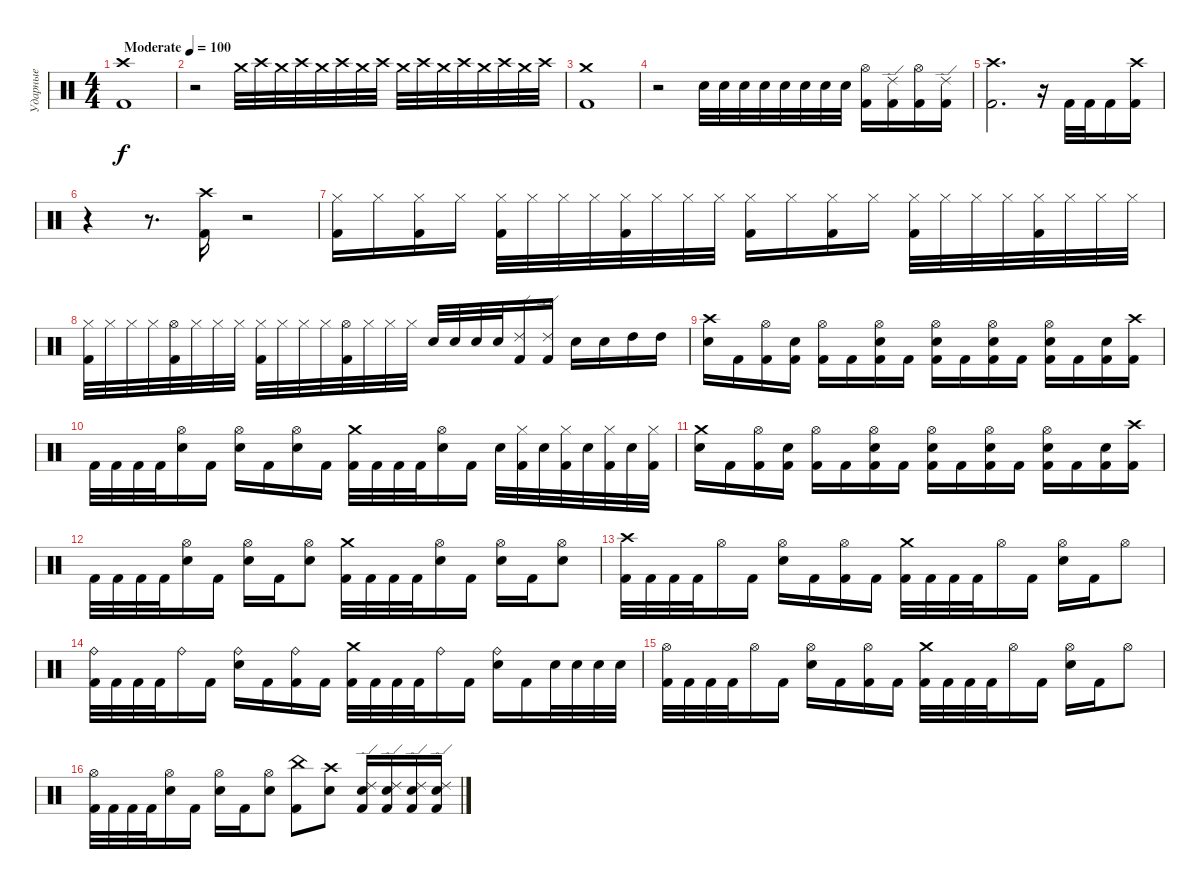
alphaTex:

\track ("Ударные" "Ударные") {instrument percussion}
\staff {score}
\articulation defaults
\ts (4 4)
\tempo (100 "Moderate")
\clef neutral
\ks c
("Crash high (hit)" "Kick (hit) 2").1{dy f} |
r.2 "Crash medium (hit)".32 "Crash high (hit)".32 "Crash medium (hit)".32 "Crash high (hit)".32 "Crash medium (hit)".32 "Crash high (hit)".32 "Crash medium (hit)".32 "Crash high (hit)".32 "Crash medium (hit)".32 "Crash high (hit)".32 "Crash medium (hit)".32 "Crash high (hit)".32 "Crash medium (hit)".32 "Crash high (hit)".32 "Crash medium (hit)".32 "Crash high (hit)".32 |
("Crash medium (hit)" "Kick (hit) 2").1 |
r.2 "Snare (hit) 2".32 "Snare (hit) 2".32 "Snare (hit) 2".32 "Snare (hit) 2".32 "Snare (hit) 2".32 "Snare (hit) 2".32 "Snare (hit) 2".32 "Snare (hit) 2".32 ("Hi-Hat (open)" "Kick (hit) 2").16 ("Ride (edge) 2" "Kick (hit) 2").16 ("Hi-Hat (open)" "Kick (hit) 2").16 ("Ride (edge) 2" "Kick (hit) 2").16 |
("Crash high (hit)" "Kick (hit) 2").2{d} r.16 "Kick (hit) 2".32 "Kick (hit) 2".32 "Kick (hit) 2".16 ("Crash high (hit)" "Kick (hit) 2").16 |
r.4 r.8{d} ("Kick (hit) 2" "Crash high (hit)").16 r.2 |
("Hi-Hat (closed)" "Kick (hit) 2").16 "Hi-Hat (closed)".16 ("Hi-Hat (closed)" "Kick (hit) 2").16 "Hi-Hat (closed)".16 ("Hi-Hat (closed)" "Kick (hit) 2").32 "Hi-Hat (closed)".32 "Hi-Hat (closed)".32 "Hi-Hat (closed)".32 ("Hi-Hat (closed)" "Kick (hit) 2").32 "Hi-Hat (closed)".32 "Hi-Hat (closed)".32 "Hi-Hat (closed)".32 ("Hi-Hat (closed)" "Kick (hit) 2").16 "Hi-Hat (closed)".16 ("Hi-Hat (closed)" "Kick (hit) 2").16 "Hi-Hat (closed)".16 ("Hi-Hat (closed)" "Kick (hit) 2").32 "Hi-Hat (closed)".32 "Hi-Hat (closed)".32 "Hi-Hat (closed)".32 ("Hi-Hat (closed)" "Kick (hit) 2").32 "Hi-Hat (closed)".32 "Hi-Hat (closed)".32 "Hi-Hat (closed)".32 |
("Hi-Hat (closed)" "Kick (hit) 2").32 "Hi-Hat (closed)".32 "Hi-Hat (closed)".32 "Hi-Hat (closed)".32 ("Hi-Hat (open)" "Kick (hit) 2").32 "Hi-Hat (closed)".32 "Hi-Hat (closed)".32 "Hi-Hat (closed)".32 ("Hi-Hat (closed)" "Kick (hit) 2").32 "Hi-Hat (closed)".32 "Hi-Hat (closed)".32 "Hi-Hat (closed)".32 ("Hi-Hat (open)" "Kick (hit) 2").32 "Hi-Hat (closed)".32 "Hi-Hat (closed)".32 "Hi-Hat (closed)".32 "Snare (hit) 2".32 "Snare (hit) 2".32 "Snare (hit) 2".32 "Snare (hit) 2".32 ("Kick (hit) 2" "Ride (edge) 2").16 ("Kick (hit) 2" "Ride (edge) 2").16 "Snare (hit) 2".16 "Snare (hit) 2".16 "High Tom (hit)".16 "High Tom (hit)".16 |
("Crash high (hit)" "Snare (hit) 2").16 "Kick (hit) 2".16 ("Hi-Hat (open)" "Kick (hit) 2").16 ("Snare (hit) 2" "Kick (hit) 2").16 ("Hi-Hat (open)" "Kick (hit) 2").16 "Kick (hit) 2".16 ("Hi-Hat (open)" "Snare (hit) 2" "Kick (hit) 2").16 "Kick (hit) 2".16 ("Hi-Hat (open)" "Snare (hit) 2" "Kick (hit) 2").16 "Kick (hit) 2".16 ("Hi-Hat (open)" "Snare (hit) 2" "Kick (hit) 2").16 "Kick (hit) 2".16 ("Hi-Hat (open)" "Snare (hit) 2" "Kick (hit) 2").16 "Kick (hit) 2".16 ("Snare (hit) 2" "Kick (hit) 2").16 ("Crash high (hit)" "Kick (hit) 2").16 |
"Kick (hit) 2".32 "Kick (hit) 2".32 "Kick (hit) 2".32 "Kick (hit) 2".32 ("Hi-Hat (open)" "Snare (hit) 2").16 "Kick (hit) 2".16 ("Hi-Hat (open)" "Snare (hit) 2").16 "Kick (hit) 2".16 ("Hi-Hat (open)" "Snare (hit) 2").16 "Kick (hit) 2".16 ("Crash medium (hit)" "Kick (hit) 2").32 "Kick (hit) 2".32 "Kick (hit) 2".32 "Kick (hit) 2".32 ("Hi-Hat (open)" "Snare (hit) 2").16 "Kick (hit) 2".16 "Snare (hit) 2".32 ("Hi-Hat (closed)" "Kick (hit) 2").32 "Snare (hit) 2".32 ("Hi-Hat (closed)" "Kick (hit) 2").32 "Snare (hit) 2".32 ("Hi-Hat (closed)" "Kick (hit) 2").32 "Snare (hit) 2".32 ("Hi-Hat (closed)" "Kick (hit) 2").32 |
("Crash medium (hit)" "Snare (hit) 2").16 "Kick (hit) 2".16 ("Hi-Hat (open)" "Kick (hit) 2").16 ("Snare (hit) 2" "Kick (hit) 2").16 ("Hi-Hat (open)" "Kick (hit) 2").16 "Kick (hit) 2".16 ("Hi-Hat (open)" "Snare (hit) 2" "Kick (hit) 2").16 "Kick (hit) 2".16 ("Hi-Hat (open)" "Snare (hit) 2" "Kick (hit) 2").16 "Kick (hit) 2".16 ("Hi-Hat (open)" "Snare (hit) 2" "Kick (hit) 2").16 "Kick (hit) 2".16 ("Hi-Hat (open)" "Snare (hit) 2" "Kick (hit) 2").16 "Kick (hit) 2".16 ("Snare (hit) 2" "Kick (hit) 2").16 ("Crash high (hit)" "Kick (hit) 2").16 |
"Kick (hit) 2".32 "Kick (hit) 2".32 "Kick (hit) 2".32 "Kick (hit) 2".32 ("Hi-Hat (open)" "Snare (hit) 2").16 "Kick (hit) 2".16 ("Hi-Hat (open)" "Snare (hit) 2").16 "Kick (hit) 2".16 ("Hi-Hat (open)" "Snare (hit) 2").8 ("Crash medium (hit)" "Kick (hit) 2").32 "Kick (hit) 2".32 "Kick (hit) 2".32 "Kick (hit) 2".32 ("Hi-Hat (open)" "Snare (hit) 2").16 "Kick (hit) 2".16 ("Hi-Hat (open)" "Snare (hit) 2").16 "Kick (hit) 2".16 ("Hi-Hat (open)" "Snare (hit) 2").8 |
("Crash high (hit)" "Kick (hit) 2").32 "Kick (hit) 2".32 "Kick (hit) 2".32 "Kick (hit) 2".32 "Hi-Hat (open)".16 "Kick (hit) 2".16 ("Hi-Hat (open)" "Snare (hit) 2").16 "Kick (hit) 2".16 ("Hi-Hat (open)" "Kick (hit) 2").16 "Kick (hit) 2".16 ("Crash medium (hit)" "Kick (hit) 2").32 "Kick (hit) 2".32 "Kick (hit) 2".32 "Kick (hit) 2".32 "Hi-Hat (open)".16 "Kick (hit) 2".16 ("Hi-Hat (open)" "Snare (hit) 2").16 "Kick (hit) 2".16 "Hi-Hat (open)".8 |
("Ride (bell)" "Kick (hit) 2").32 "Kick (hit) 2".32 "Kick (hit) 2".32 "Kick (hit) 2".32 "Ride (bell)".16 "Kick (hit) 2".16 ("Ride (bell)" "Snare (hit) 2").16 "Kick (hit) 2".16 ("Ride (bell)" "Kick (hit) 2").16 "Kick (hit) 2".16 ("Crash medium (hit)" "Kick (hit) 2").32 "Kick (hit) 2".32 "Kick (hit) 2".32 "Kick (hit) 2".32 "Ride (bell)".16 "Kick (hit) 2".16 ("Ride (bell)" "Snare (hit) 2").16 "Kick (hit) 2".16 "Snare (hit) 2".32 "Snare (hit) 2".32 "Snare (hit) 2".32 "Snare (hit) 2".32 |
("Hi-Hat (open)" "Kick (hit) 2").32 "Kick (hit) 2".32 "Kick (hit) 2".32 "Kick (hit) 2".32 "Hi-Hat (open)".16 "Kick (hit) 2".16 ("Hi-Hat (open)" "Snare (hit) 2").16 "Kick (hit) 2".16 ("Hi-Hat (open)" "Kick (hit) 2").16 "Kick (hit) 2".16 ("Crash medium (hit)" "Kick (hit) 2").32 "Kick (hit) 2".32 "Kick (hit) 2".32 "Kick (hit) 2".32 "Hi-Hat (open)".16 "Kick (hit) 2".16 ("Hi-Hat (open)" "Snare (hit) 2").16 "Kick (hit) 2".16 "Hi-Hat (open)".8 |
("Hi-Hat (open)" "Kick (hit) 2").32 "Kick (hit) 2".32 "Kick (hit) 2".32 "Kick (hit) 2".32 ("Hi-Hat (open)" "Snare (hit) 2").16 "Kick (hit) 2".16 ("Hi-Hat (open)" "Snare (hit) 2").16 "Kick (hit) 2".16 ("Hi-Hat (open)" "Snare (hit) 2").8 ("Kick (hit) 2" "China (hit)").8 ("Snare (hit) 2" "Crash high (hit)").8 ("Ride (edge) 2" "Snare (hit) 2" "Kick (hit) 2").16 ("Ride (edge) 2" "Snare (hit) 2" "Kick (hit) 2").16 ("Ride (edge) 2" "Snare (hit) 2" "Kick (hit) 2").16 ("Ride (edge) 2" "Snare (hit) 2" "Kick (hit) 2").16
